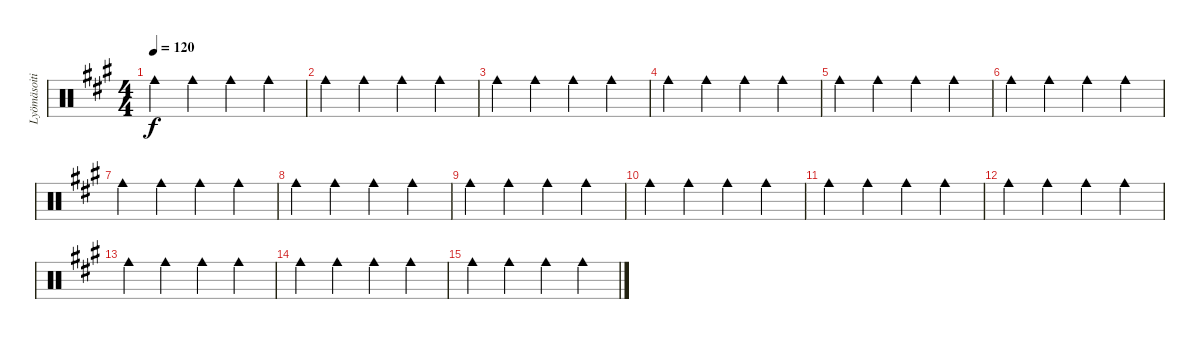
\track ("Lyömäsoitin" "Lyömäsoiti") {instrument percussion}
\staff {score}
\articulation defaults
\ts (4 4)
\tempo 120
\clef neutral
\ks f#minor "Cowbell medium (hit)".4{dy f} "Cowbell medium (hit)".4 "Cowbell medium (hit)".4 "Cowbell medium (hit)".4
|
"Cowbell medium (hit)".4 "Cowbell medium (hit)".4 "Cowbell medium (hit)".4 "Cowbell medium (hit)".4 |
"Cowbell medium (hit)".4 "Cowbell medium (hit)".4 "Cowbell medium (hit)".4 "Cowbell medium (hit)".4 |
"Cowbell medium (hit)".4 "Cowbell medium (hit)".4 "Cowbell medium (hit)".4 "Cowbell medium (hit)".4 |
"Cowbell medium (hit)".4 "Cowbell medium (hit)".4 "Cowbell medium (hit)".4 "Cowbell medium (hit)".4 |
"Cowbell medium (hit)".4 "Cowbell medium (hit)".4 "Cowbell medium (hit)".4 "Cowbell medium (hit)".4 |
"Cowbell medium (hit)".4 "Cowbell medium (hit)".4 "Cowbell medium (hit)".4 "Cowbell medium (hit)".4 |
"Cowbell medium (hit)".4 "Cowbell medium (hit)".4 "Cowbell medium (hit)".4 "Cowbell medium (hit)".4 |
"Cowbell medium (hit)".4 "Cowbell medium (hit)".4 "Cowbell medium (hit)".4 "Cowbell medium (hit)".4 |
"Cowbell medium (hit)".4 "Cowbell medium (hit)".4 "Cowbell medium (hit)".4 "Cowbell medium (hit)".4 |
"Cowbell medium (hit)".4 "Cowbell medium (hit)".4 "Cowbell medium (hit)".4 "Cowbell medium (hit)".4 |
"Cowbell medium (hit)".4 "Cowbell medium (hit)".4 "Cowbell medium (hit)".4 "Cowbell medium (hit)".4 |
"Cowbell medium (hit)".4 "Cowbell medium (hit)".4 "Cowbell medium (hit)".4 "Cowbell medium (hit)".4 |
"Cowbell medium (hit)".4 "Cowbell medium (hit)".4 "Cowbell medium (hit)".4 "Cowbell medium (hit)".4 |
"Cowbell medium (hit)".4 "Cowbell medium (hit)".4 "Cowbell medium (hit)".4 "Cowbell medium (hit)".4
